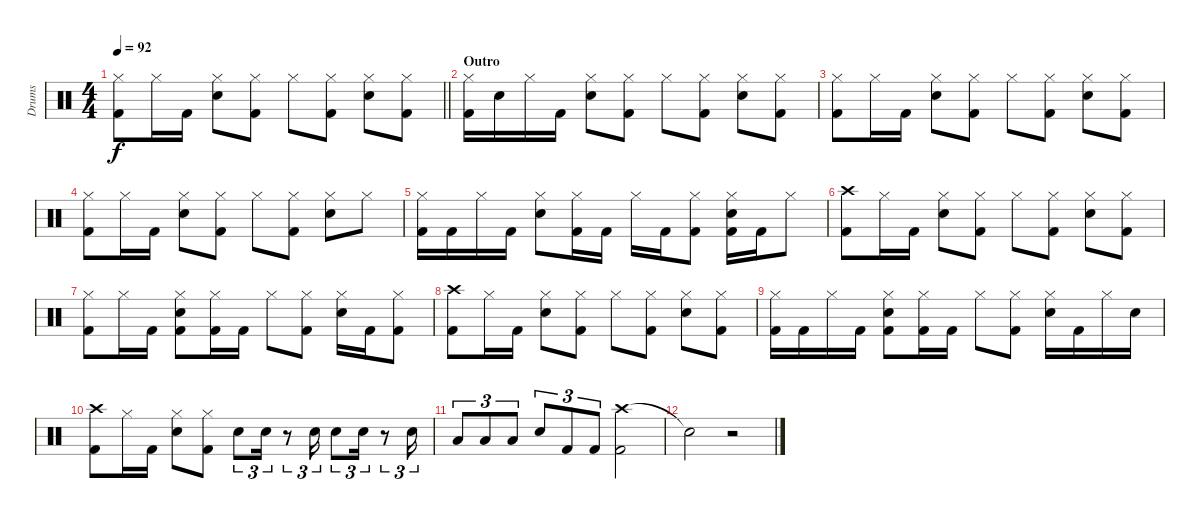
\track ("Drums" "Drums") {instrument percussion}
\staff {score}
\articulation defaults
\ts (4 4)
\tempo 92
\clef neutral
\barLineRight lightlight
\ks c
("Hi-Hat (closed)" "Kick (hit) 2").8{dy f} "Hi-Hat (closed)".16 "Kick (hit) 2".16 ("Hi-Hat (closed)" "Electric Snare (hit)").8 ("Hi-Hat (closed)" "Kick (hit) 2").8 "Hi-Hat (closed)".8 ("Hi-Hat (closed)" "Kick (hit) 2").8 ("Hi-Hat (closed)" "Electric Snare (hit)").8 ("Hi-Hat (closed)" "Kick (hit) 2").8 |
\section ("" "Outro")
("Hi-Hat (closed)" "Kick (hit) 2").16 "Electric Snare (hit)".16 "Hi-Hat (closed)".16 "Kick (hit) 2".16 ("Hi-Hat (closed)" "Electric Snare (hit)").8 ("Hi-Hat (closed)" "Kick (hit) 2").8 "Hi-Hat (closed)".8 ("Hi-Hat (closed)" "Kick (hit) 2").8 ("Hi-Hat (closed)" "Electric Snare (hit)").8 ("Hi-Hat (closed)" "Kick (hit) 2").8 |
("Hi-Hat (closed)" "Kick (hit) 2").8 "Hi-Hat (closed)".16 "Kick (hit) 2".16 ("Hi-Hat (closed)" "Electric Snare (hit)").8 ("Hi-Hat (closed)" "Kick (hit) 2").8 "Hi-Hat (closed)".8 ("Hi-Hat (closed)" "Kick (hit) 2").8 ("Hi-Hat (closed)" "Electric Snare (hit)").8 ("Hi-Hat (closed)" "Kick (hit) 2").8 |
("Hi-Hat (closed)" "Kick (hit) 2").8 "Hi-Hat (closed)".16 "Kick (hit) 2".16 ("Hi-Hat (closed)" "Electric Snare (hit)").8 ("Hi-Hat (closed)" "Kick (hit) 2").8 "Hi-Hat (closed)".8 ("Hi-Hat (closed)" "Kick (hit) 2").8 ("Hi-Hat (closed)" "Electric Snare (hit)").8 "Hi-Hat (closed)".8 |
("Hi-Hat (closed)" "Kick (hit) 2").16 "Kick (hit) 2".16 "Hi-Hat (closed)".16 "Kick (hit) 2".16 ("Hi-Hat (closed)" "Electric Snare (hit)").8 ("Hi-Hat (closed)" "Kick (hit) 2").16 "Kick (hit) 2".16 "Hi-Hat (closed)".16 "Kick (hit) 2".16 ("Hi-Hat (closed)" "Kick (hit) 2").8 ("Hi-Hat (closed)" "Electric Snare (hit)" "Kick (hit) 2").16 "Kick (hit) 2".16 "Hi-Hat (closed)".8 |
("Crash high (hit)" "Kick (hit) 2").8 "Hi-Hat (closed)".16 "Kick (hit) 2".16 ("Hi-Hat (closed)" "Electric Snare (hit)").8 ("Hi-Hat (closed)" "Kick (hit) 2").8 "Hi-Hat (closed)".8 ("Hi-Hat (closed)" "Kick (hit) 2").8 ("Hi-Hat (closed)" "Electric Snare (hit)").8 ("Hi-Hat (closed)" "Kick (hit) 2").8 |
("Hi-Hat (closed)" "Kick (hit) 2").8 "Hi-Hat (closed)".16 "Kick (hit) 2".16 ("Hi-Hat (closed)" "Electric Snare (hit)" "Kick (hit) 2").8 ("Hi-Hat (closed)" "Kick (hit) 2").16 "Kick (hit) 2".16 "Hi-Hat (closed)".8 ("Hi-Hat (closed)" "Kick (hit) 2").8 ("Hi-Hat (closed)" "Electric Snare (hit)").16 "Kick (hit) 2".16 ("Hi-Hat (closed)" "Kick (hit) 2").8 |
("Crash high (hit)" "Kick (hit) 2").8 "Hi-Hat (closed)".16 "Kick (hit) 2".16 ("Hi-Hat (closed)" "Electric Snare (hit)").8 ("Hi-Hat (closed)" "Kick (hit) 2").8 "Hi-Hat (closed)".8 ("Hi-Hat (closed)" "Kick (hit) 2").8 ("Hi-Hat (closed)" "Electric Snare (hit)").8 ("Hi-Hat (closed)" "Kick (hit) 2").8 |
("Hi-Hat (closed)" "Kick (hit) 2").16 "Kick (hit) 2".16 "Hi-Hat (closed)".16 "Kick (hit) 2".16 ("Hi-Hat (closed)" "Electric Snare (hit)" "Kick (hit) 2").8 ("Hi-Hat (closed)" "Kick (hit) 2").16 "Kick (hit) 2".16 "Hi-Hat (closed)".8 ("Hi-Hat (closed)" "Kick (hit) 2").8 ("Hi-Hat (closed)" "Electric Snare (hit)").16 "Kick (hit) 2".16 "Hi-Hat (closed)".16 "Electric Snare (hit)".16 |
("Crash high (hit)" "Kick (hit) 2").8 "Hi-Hat (closed)".16 "Kick (hit) 2".16 ("Hi-Hat (closed)" "Electric Snare (hit)").8 ("Hi-Hat (closed)" "Kick (hit) 2").8 "Electric Snare (hit)".8{tu (3 2)} "Electric Snare (hit)".16{tu (3 2)} r.8{tu (3 2)} "Electric Snare (hit)".16{tu (3 2)} "Electric Snare (hit)".8{tu (3 2)} "Electric Snare (hit)".16{tu (3 2)} r.8{tu (3 2)} "Electric Snare (hit)".16{tu (3 2)} |
"Low Tom (hit)".8{tu (3 2)} "Low Tom (hit)".8{tu (3 2)} "Low Tom (hit)".8{tu (3 2)} "Electric Snare (hit)".8{tu (3 2)} "Kick (hit) 2".8{tu (3 2)} "Kick (hit) 2".8{tu (3 2)} ("Crash high (hit)" "Kick (hit) 2").2 |
"Snare (hit)"{t}.2 r.2
